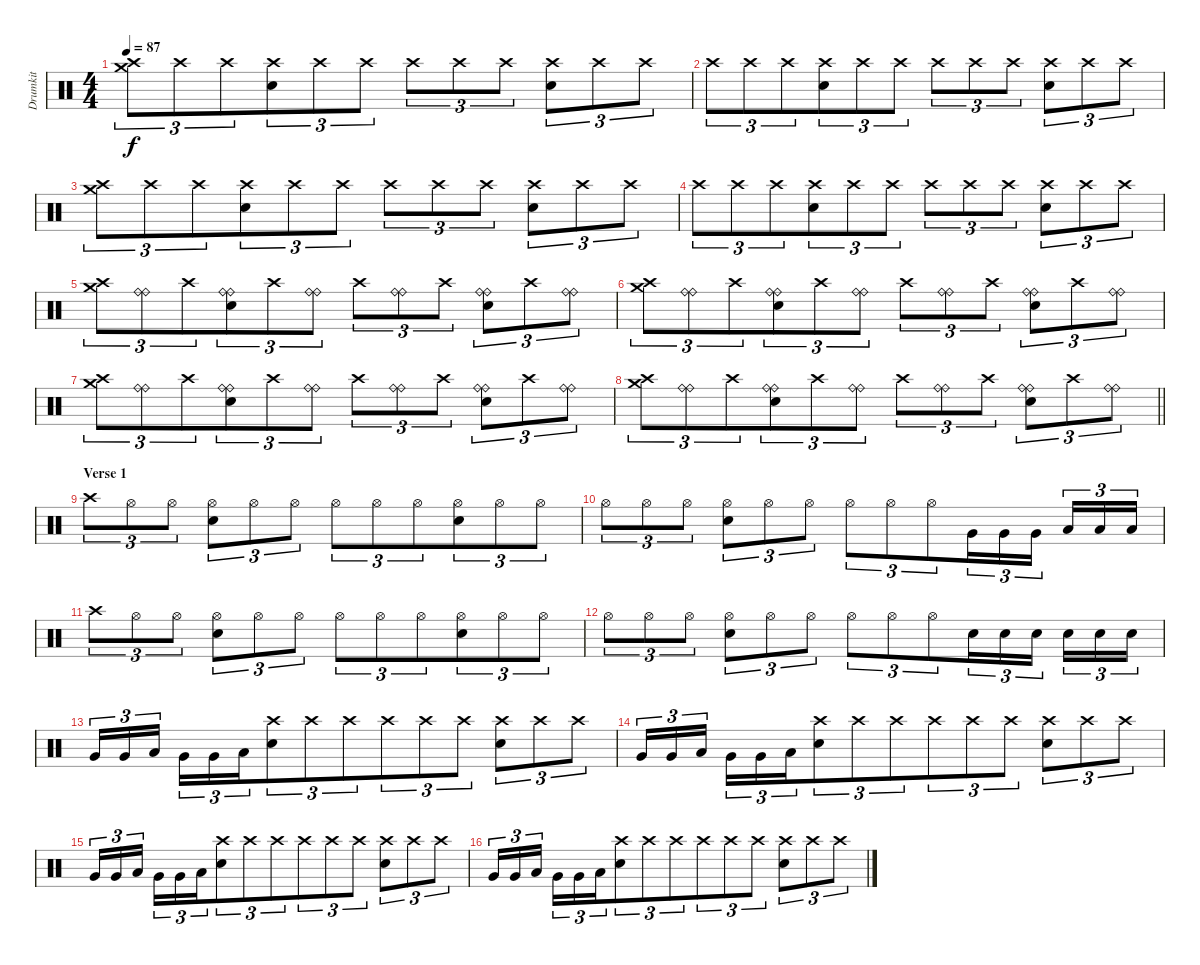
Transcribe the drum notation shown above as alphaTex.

\track ("Drumkit" "Drumkit") {instrument percussion bank 158}
\staff {score}
\articulation defaults
\ts (4 4)
\tempo 87
\clef neutral
\ks c
("Crash medium (hit)" "Crash high (hit)").8{tu (3 2) dy f beam merge} "Crash high (hit)".8{tu (3 2) beam merge} "Crash high (hit)".8{tu (3 2) beam merge} ("Crash high (hit)" "Electric Snare (hit)").8{tu (3 2)} "Crash high (hit)".8{tu (3 2)} "Crash high (hit)".8{tu (3 2)} "Crash high (hit)".8{tu (3 2) beam merge} "Crash high (hit)".8{tu (3 2) beam merge} "Crash high (hit)".8{tu (3 2)} ("Crash high (hit)" "Electric Snare (hit)").8{tu (3 2)} "Crash high (hit)".8{tu (3 2) beam merge} "Crash high (hit)".8{tu (3 2)} |
"Crash high (hit)".8{tu (3 2) beam merge} "Crash high (hit)".8{tu (3 2) beam merge} "Crash high (hit)".8{tu (3 2) beam merge} ("Crash high (hit)" "Electric Snare (hit)").8{tu (3 2)} "Crash high (hit)".8{tu (3 2)} "Crash high (hit)".8{tu (3 2)} "Crash high (hit)".8{tu (3 2) beam merge} "Crash high (hit)".8{tu (3 2) beam merge} "Crash high (hit)".8{tu (3 2)} ("Crash high (hit)" "Electric Snare (hit)").8{tu (3 2)} "Crash high (hit)".8{tu (3 2) beam merge} "Crash high (hit)".8{tu (3 2)} |
("Crash medium (hit)" "Crash high (hit)").8{tu (3 2) beam merge} "Crash high (hit)".8{tu (3 2) beam merge} "Crash high (hit)".8{tu (3 2) beam merge} ("Crash high (hit)" "Electric Snare (hit)").8{tu (3 2)} "Crash high (hit)".8{tu (3 2)} "Crash high (hit)".8{tu (3 2)} "Crash high (hit)".8{tu (3 2) beam merge} "Crash high (hit)".8{tu (3 2) beam merge} "Crash high (hit)".8{tu (3 2)} ("Crash high (hit)" "Electric Snare (hit)").8{tu (3 2)} "Crash high (hit)".8{tu (3 2) beam merge} "Crash high (hit)".8{tu (3 2)} |
"Crash high (hit)".8{tu (3 2) beam merge} "Crash high (hit)".8{tu (3 2) beam merge} "Crash high (hit)".8{tu (3 2) beam merge} ("Crash high (hit)" "Electric Snare (hit)").8{tu (3 2)} "Crash high (hit)".8{tu (3 2)} "Crash high (hit)".8{tu (3 2)} "Crash high (hit)".8{tu (3 2) beam merge} "Crash high (hit)".8{tu (3 2) beam merge} "Crash high (hit)".8{tu (3 2)} ("Crash high (hit)" "Electric Snare (hit)").8{tu (3 2)} "Crash high (hit)".8{tu (3 2) beam merge} "Crash high (hit)".8{tu (3 2)} |
("Crash medium (hit)" "Crash high (hit)").8{tu (3 2) beam merge} ("Ride (bell)" "Ride (bell)").8{tu (3 2) beam merge} "Crash high (hit)".8{tu (3 2) beam merge} ("Ride (bell)" "Ride (bell)" "Electric Snare (hit)").8{tu (3 2)} "Crash high (hit)".8{tu (3 2)} ("Ride (bell)" "Ride (bell)").8{tu (3 2)} "Crash high (hit)".8{tu (3 2) beam merge} ("Ride (bell)" "Ride (bell)").8{tu (3 2) beam merge} "Crash high (hit)".8{tu (3 2)} ("Ride (bell)" "Ride (bell)" "Electric Snare (hit)").8{tu (3 2)} "Crash high (hit)".8{tu (3 2) beam merge} ("Ride (bell)" "Ride (bell)").8{tu (3 2)} |
("Crash medium (hit)" "Crash high (hit)").8{tu (3 2) beam merge} ("Ride (bell)" "Ride (bell)").8{tu (3 2) beam merge} "Crash high (hit)".8{tu (3 2) beam merge} ("Ride (bell)" "Ride (bell)" "Electric Snare (hit)").8{tu (3 2)} "Crash high (hit)".8{tu (3 2)} ("Ride (bell)" "Ride (bell)").8{tu (3 2)} "Crash high (hit)".8{tu (3 2) beam merge} ("Ride (bell)" "Ride (bell)").8{tu (3 2) beam merge} "Crash high (hit)".8{tu (3 2)} ("Ride (bell)" "Ride (bell)" "Electric Snare (hit)").8{tu (3 2)} "Crash high (hit)".8{tu (3 2) beam merge} ("Ride (bell)" "Ride (bell)").8{tu (3 2)} |
("Crash medium (hit)" "Crash high (hit)").8{tu (3 2) beam merge} ("Ride (bell)" "Ride (bell)").8{tu (3 2) beam merge} "Crash high (hit)".8{tu (3 2) beam merge} ("Ride (bell)" "Ride (bell)" "Electric Snare (hit)").8{tu (3 2)} "Crash high (hit)".8{tu (3 2)} ("Ride (bell)" "Ride (bell)").8{tu (3 2)} "Crash high (hit)".8{tu (3 2) beam merge} ("Ride (bell)" "Ride (bell)").8{tu (3 2) beam merge} "Crash high (hit)".8{tu (3 2)} ("Ride (bell)" "Ride (bell)" "Electric Snare (hit)").8{tu (3 2)} "Crash high (hit)".8{tu (3 2) beam merge} ("Ride (bell)" "Ride (bell)").8{tu (3 2)} |
\barLineRight lightlight
("Crash medium (hit)" "Crash high (hit)").8{tu (3 2) beam merge} ("Ride (bell)" "Ride (bell)").8{tu (3 2) beam merge} "Crash high (hit)".8{tu (3 2) beam merge} ("Ride (bell)" "Ride (bell)" "Electric Snare (hit)").8{tu (3 2)} "Crash high (hit)".8{tu (3 2)} ("Ride (bell)" "Ride (bell)").8{tu (3 2)} "Crash high (hit)".8{tu (3 2) beam merge} ("Ride (bell)" "Ride (bell)").8{tu (3 2) beam merge} "Crash high (hit)".8{tu (3 2)} ("Ride (bell)" "Ride (bell)" "Electric Snare (hit)").8{tu (3 2)} "Crash high (hit)".8{tu (3 2) beam merge} ("Ride (bell)" "Ride (bell)").8{tu (3 2)} |
\section ("" "Verse 1")
"Crash high (hit)".8{tu (3 2)} "Hi-Hat (open)".8{tu (3 2) beam merge} "Hi-Hat (open)".8{tu (3 2)} ("Hi-Hat (open)" "Electric Snare (hit)").8{tu (3 2) beam merge} "Hi-Hat (open)".8{tu (3 2) beam merge} "Hi-Hat (open)".8{tu (3 2)} "Hi-Hat (open)".8{tu (3 2) beam merge} "Hi-Hat (open)".8{tu (3 2)} "Hi-Hat (open)".8{tu (3 2) beam merge} ("Hi-Hat (open)" "Electric Snare (hit)").8{tu (3 2) beam merge} "Hi-Hat (open)".8{tu (3 2) beam merge} "Hi-Hat (open)".8{tu (3 2)} |
"Hi-Hat (open)".8{tu (3 2)} "Hi-Hat (open)".8{tu (3 2) beam merge} "Hi-Hat (open)".8{tu (3 2)} ("Hi-Hat (open)" "Electric Snare (hit)").8{tu (3 2) beam merge} "Hi-Hat (open)".8{tu (3 2) beam merge} "Hi-Hat (open)".8{tu (3 2)} "Hi-Hat (open)".8{tu (3 2) beam merge} "Hi-Hat (open)".8{tu (3 2)} "Hi-Hat (open)".8{tu (3 2) beam merge} "Very Low Tom (hit)".16{tu (3 2) beam merge} "Very Low Tom (hit)".16{tu (3 2) beam merge} "Very Low Tom (hit)".16{tu (3 2) beam splitsecondary} "Low Floor Tom (hit)".16{tu (3 2) beam merge} "Low Floor Tom (hit)".16{tu (3 2)} "Low Floor Tom (hit)".16{tu (3 2)} |
"Crash high (hit)".8{tu (3 2)} "Hi-Hat (open)".8{tu (3 2) beam merge} "Hi-Hat (open)".8{tu (3 2)} ("Hi-Hat (open)" "Electric Snare (hit)").8{tu (3 2) beam merge} "Hi-Hat (open)".8{tu (3 2) beam merge} "Hi-Hat (open)".8{tu (3 2)} "Hi-Hat (open)".8{tu (3 2) beam merge} "Hi-Hat (open)".8{tu (3 2)} "Hi-Hat (open)".8{tu (3 2) beam merge} ("Hi-Hat (open)" "Electric Snare (hit)").8{tu (3 2) beam merge} "Hi-Hat (open)".8{tu (3 2) beam merge} "Hi-Hat (open)".8{tu (3 2)} |
"Hi-Hat (open)".8{tu (3 2)} "Hi-Hat (open)".8{tu (3 2) beam merge} "Hi-Hat (open)".8{tu (3 2)} ("Hi-Hat (open)" "Electric Snare (hit)").8{tu (3 2) beam merge} "Hi-Hat (open)".8{tu (3 2) beam merge} "Hi-Hat (open)".8{tu (3 2)} "Hi-Hat (open)".8{tu (3 2) beam merge} "Hi-Hat (open)".8{tu (3 2)} "Hi-Hat (open)".8{tu (3 2) beam merge} "Electric Snare (hit)".16{tu (3 2) beam merge} "Electric Snare (hit)".16{tu (3 2) beam merge} "Electric Snare (hit)".16{tu (3 2) beam splitsecondary} "Electric Snare (hit)".16{tu (3 2) beam merge} "Electric Snare (hit)".16{tu (3 2)} "Electric Snare (hit)".16{tu (3 2)} |
"Very Low Tom (hit)".16{tu (3 2)} "Very Low Tom (hit)".16{tu (3 2)} "Low Floor Tom (hit)".16{tu (3 2) beam splitsecondary} "Very Low Tom (hit)".16{tu (3 2)} "Very Low Tom (hit)".16{tu (3 2) beam merge} "Low Floor Tom (hit)".16{tu (3 2) beam merge} ("Crash high (hit)" "Electric Snare (hit)").8{tu (3 2)} "Crash high (hit)".8{tu (3 2)} "Crash high (hit)".8{tu (3 2) beam merge} "Crash high (hit)".8{tu (3 2)} "Crash high (hit)".8{tu (3 2) beam merge} "Crash high (hit)".8{tu (3 2)} ("Crash high (hit)" "Electric Snare (hit)").8{tu (3 2)} "Crash high (hit)".8{tu (3 2) beam merge} "Crash high (hit)".8{tu (3 2)} |
"Very Low Tom (hit)".16{tu (3 2)} "Very Low Tom (hit)".16{tu (3 2)} "Low Floor Tom (hit)".16{tu (3 2) beam splitsecondary} "Very Low Tom (hit)".16{tu (3 2)} "Very Low Tom (hit)".16{tu (3 2) beam merge} "Low Floor Tom (hit)".16{tu (3 2) beam merge} ("Crash high (hit)" "Electric Snare (hit)").8{tu (3 2)} "Crash high (hit)".8{tu (3 2)} "Crash high (hit)".8{tu (3 2) beam merge} "Crash high (hit)".8{tu (3 2)} "Crash high (hit)".8{tu (3 2) beam merge} "Crash high (hit)".8{tu (3 2)} ("Crash high (hit)" "Electric Snare (hit)").8{tu (3 2)} "Crash high (hit)".8{tu (3 2) beam merge} "Crash high (hit)".8{tu (3 2)} |
"Very Low Tom (hit)".16{tu (3 2)} "Very Low Tom (hit)".16{tu (3 2)} "Low Floor Tom (hit)".16{tu (3 2) beam splitsecondary} "Very Low Tom (hit)".16{tu (3 2)} "Very Low Tom (hit)".16{tu (3 2) beam merge} "Low Floor Tom (hit)".16{tu (3 2) beam merge} ("Crash high (hit)" "Electric Snare (hit)").8{tu (3 2)} "Crash high (hit)".8{tu (3 2)} "Crash high (hit)".8{tu (3 2) beam merge} "Crash high (hit)".8{tu (3 2)} "Crash high (hit)".8{tu (3 2) beam merge} "Crash high (hit)".8{tu (3 2)} ("Crash high (hit)" "Electric Snare (hit)").8{tu (3 2)} "Crash high (hit)".8{tu (3 2) beam merge} "Crash high (hit)".8{tu (3 2)} |
"Very Low Tom (hit)".16{tu (3 2)} "Very Low Tom (hit)".16{tu (3 2)} "Low Floor Tom (hit)".16{tu (3 2) beam splitsecondary} "Very Low Tom (hit)".16{tu (3 2)} "Very Low Tom (hit)".16{tu (3 2) beam merge} "Low Floor Tom (hit)".16{tu (3 2) beam merge} ("Crash high (hit)" "Electric Snare (hit)").8{tu (3 2)} "Crash high (hit)".8{tu (3 2)} "Crash high (hit)".8{tu (3 2) beam merge} "Crash high (hit)".8{tu (3 2)} "Crash high (hit)".8{tu (3 2) beam merge} "Crash high (hit)".8{tu (3 2)} ("Crash high (hit)" "Electric Snare (hit)").8{tu (3 2)} "Crash high (hit)".8{tu (3 2) beam merge} "Crash high (hit)".8{tu (3 2)}
